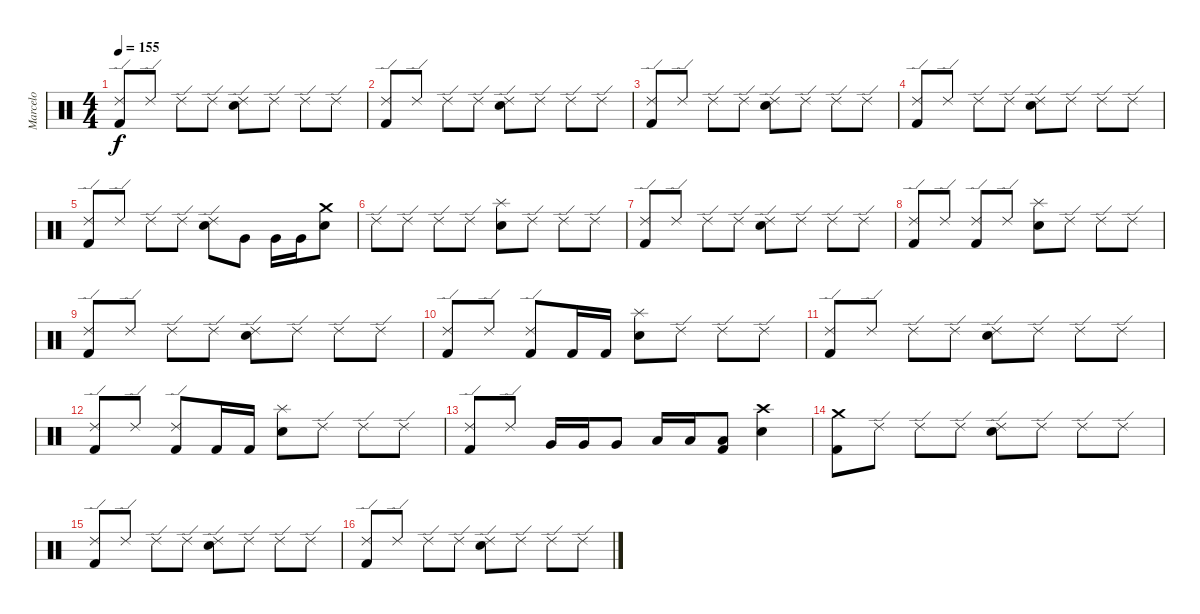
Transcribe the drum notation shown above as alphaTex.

\track ("Marcelo" "Marcelo") {instrument percussion}
\staff {score}
\articulation defaults
\ts (4 4)
\tempo 155
\clef neutral
\ks c
("Ride (edge) 2" "Kick (hit) 2").8{dy f} "Ride (edge) 2".8 "Ride (edge) 2".8 "Ride (edge) 2".8 ("Ride (edge) 2" "Electric Snare (hit)").8 "Ride (edge) 2".8 "Ride (edge) 2".8 "Ride (edge) 2".8 |
("Ride (edge) 2" "Kick (hit) 2").8 "Ride (edge) 2".8 "Ride (edge) 2".8 "Ride (edge) 2".8 ("Ride (edge) 2" "Electric Snare (hit)").8 "Ride (edge) 2".8 "Ride (edge) 2".8 "Ride (edge) 2".8 |
("Ride (edge) 2" "Kick (hit) 2").8 "Ride (edge) 2".8 "Ride (edge) 2".8 "Ride (edge) 2".8 ("Ride (edge) 2" "Electric Snare (hit)").8 "Ride (edge) 2".8 "Ride (edge) 2".8 "Ride (edge) 2".8 |
("Ride (edge) 2" "Kick (hit) 2").8 "Ride (edge) 2".8 "Ride (edge) 2".8 "Ride (edge) 2".8 ("Ride (edge) 2" "Electric Snare (hit)").8 "Ride (edge) 2".8 "Ride (edge) 2".8 "Ride (edge) 2".8 |
("Ride (edge) 2" "Kick (hit) 2").8 "Ride (edge) 2".8 "Ride (edge) 2".8 "Ride (edge) 2".8 ("Ride (edge) 2" "Electric Snare (hit)").8 "Very Low Tom (hit)".8 "Very Low Tom (hit)".16 "Very Low Tom (hit)".16 ("Crash medium (hit)" "Electric Snare (hit)").8 |
"Ride (edge) 2".8 "Ride (edge) 2".8 "Ride (edge) 2".8 "Ride (edge) 2".8 ("Splash (hit)" "Electric Snare (hit)").8 "Ride (edge) 2".8 "Ride (edge) 2".8 "Ride (edge) 2".8 |
("Ride (edge) 2" "Kick (hit) 2").8 "Ride (edge) 2".8 "Ride (edge) 2".8 "Ride (edge) 2".8 ("Ride (edge) 2" "Electric Snare (hit)").8 "Ride (edge) 2".8 "Ride (edge) 2".8 "Ride (edge) 2".8 |
("Ride (edge) 2" "Kick (hit) 2").8 "Ride (edge) 2".8 ("Ride (edge) 2" "Kick (hit) 2").8 "Ride (edge) 2".8 ("Splash (hit)" "Electric Snare (hit)").8 "Ride (edge) 2".8 "Ride (edge) 2".8 "Ride (edge) 2".8 |
("Ride (edge) 2" "Kick (hit) 2").8 "Ride (edge) 2".8 "Ride (edge) 2".8 "Ride (edge) 2".8 ("Ride (edge) 2" "Electric Snare (hit)").8 "Ride (edge) 2".8 "Ride (edge) 2".8 "Ride (edge) 2".8 |
("Ride (edge) 2" "Kick (hit) 2").8 "Ride (edge) 2".8 ("Ride (edge) 2" "Kick (hit) 2").8 "Kick (hit) 2".16 "Kick (hit) 2".16 ("Splash (hit)" "Electric Snare (hit)").8 "Ride (edge) 2".8 "Ride (edge) 2".8 "Ride (edge) 2".8 |
("Ride (edge) 2" "Kick (hit) 2").8 "Ride (edge) 2".8 "Ride (edge) 2".8 "Ride (edge) 2".8 ("Ride (edge) 2" "Electric Snare (hit)").8 "Ride (edge) 2".8 "Ride (edge) 2".8 "Ride (edge) 2".8 |
("Ride (edge) 2" "Kick (hit) 2").8 "Ride (edge) 2".8 ("Ride (edge) 2" "Kick (hit) 2").8 "Kick (hit) 2".16 "Kick (hit) 2".16 ("Splash (hit)" "Electric Snare (hit)").8 "Ride (edge) 2".8 "Ride (edge) 2".8 "Ride (edge) 2".8 |
("Ride (edge) 2" "Kick (hit) 2").8 "Ride (edge) 2".8 "Very Low Tom (hit)".16 "Very Low Tom (hit)".16 "Very Low Tom (hit)".8 "Low Floor Tom (hit)".16 "Low Floor Tom (hit)".16 ("Low Floor Tom (hit)" "Kick (hit) 2").8 ("Crash high (hit)" "Electric Snare (hit)").4 |
("Crash medium (hit)" "Kick (hit) 2").8 "Ride (edge) 2".8 "Ride (edge) 2".8 "Ride (edge) 2".8 ("Ride (edge) 2" "Electric Snare (hit)").8 "Ride (edge) 2".8 "Ride (edge) 2".8 "Ride (edge) 2".8 |
("Ride (edge) 2" "Kick (hit) 2").8 "Ride (edge) 2".8 "Ride (edge) 2".8 "Ride (edge) 2".8 ("Ride (edge) 2" "Electric Snare (hit)").8 "Ride (edge) 2".8 "Ride (edge) 2".8 "Ride (edge) 2".8 |
("Ride (edge) 2" "Kick (hit) 2").8 "Ride (edge) 2".8 "Ride (edge) 2".8 "Ride (edge) 2".8 ("Ride (edge) 2" "Electric Snare (hit)").8 "Ride (edge) 2".8 "Ride (edge) 2".8 "Ride (edge) 2".8
